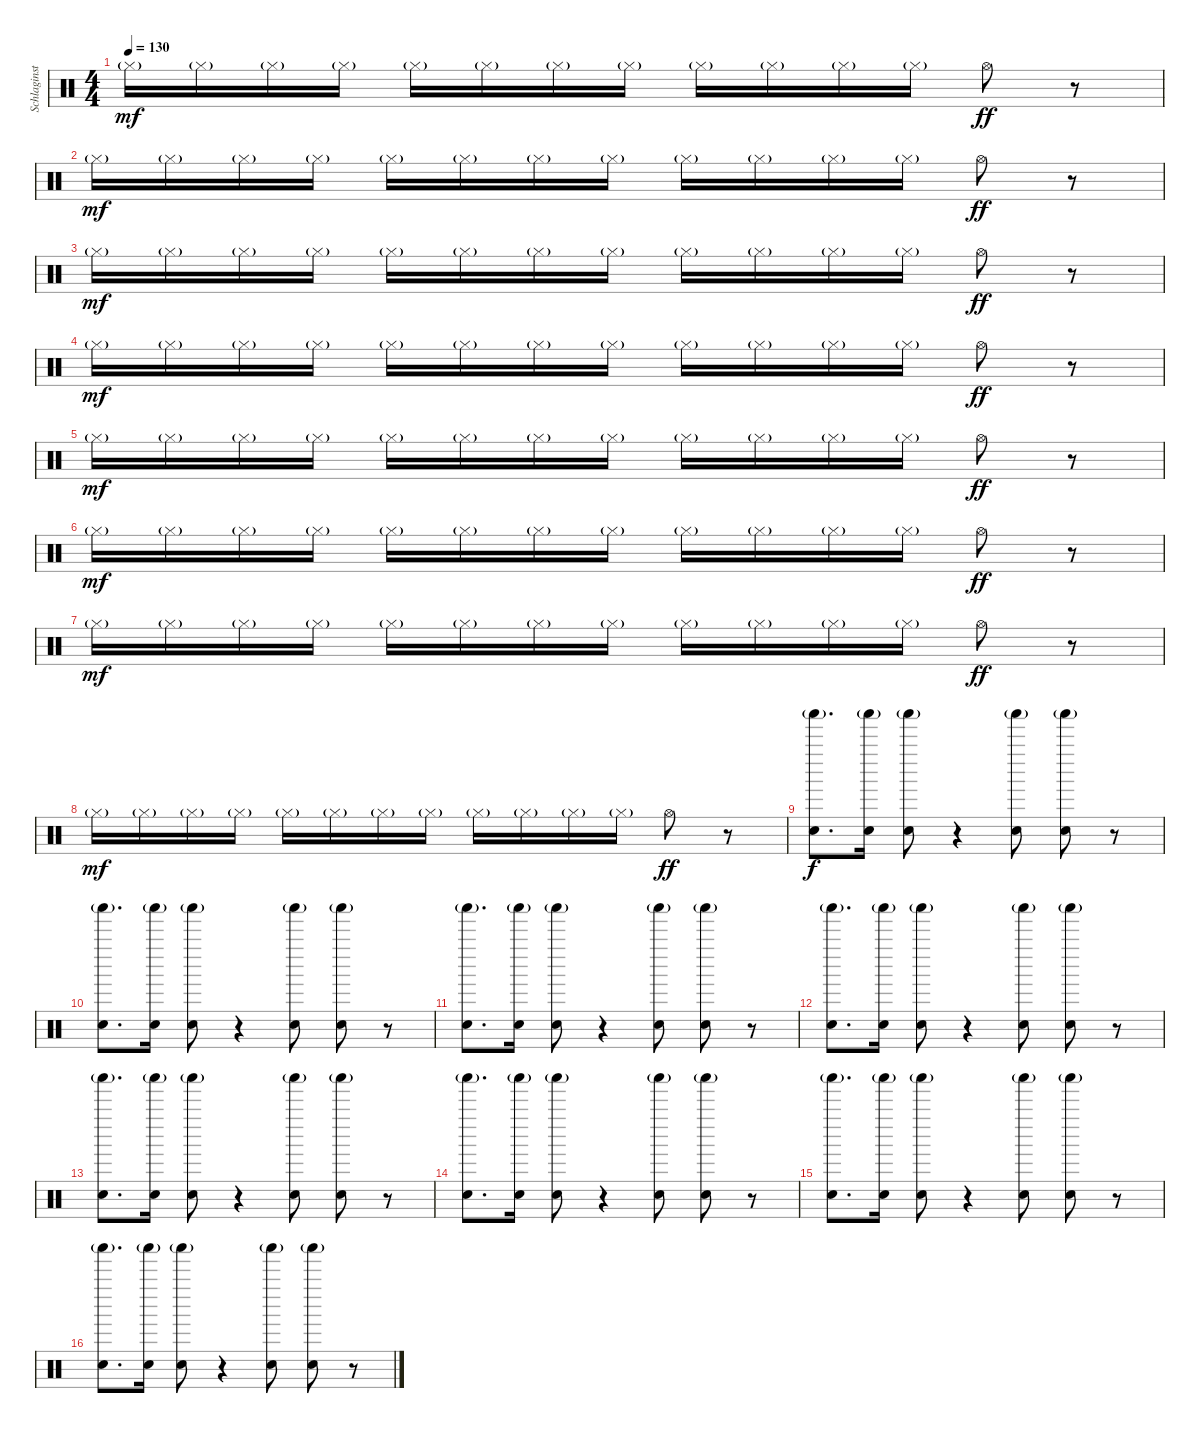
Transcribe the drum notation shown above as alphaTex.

\track ("Schlaginstrumente - Auswahl" "Schlaginst") {instrument percussion}
\staff {score}
\articulation defaults
\ts (4 4)
\tempo 130
\clef neutral
\ks c "Hi-Hat (closed)"{g}.16{dy mf} "Hi-Hat (closed)"{g}.16 "Hi-Hat (closed)"{g}.16 "Hi-Hat (closed)"{g}.16 "Hi-Hat (closed)"{g}.16 "Hi-Hat (closed)"{g}.16 "Hi-Hat (closed)"{g}.16 "Hi-Hat (closed)"{g}.16 "Hi-Hat (closed)"{g}.16 "Hi-Hat (closed)"{g}.16 "Hi-Hat (closed)"{g}.16 "Hi-Hat (closed)"{g}.16 "Hi-Hat (open)".8{dy ff}
r.8 |
"Hi-Hat (closed)"{g}.16{dy mf} "Hi-Hat (closed)"{g}.16 "Hi-Hat (closed)"{g}.16 "Hi-Hat (closed)"{g}.16 "Hi-Hat (closed)"{g}.16 "Hi-Hat (closed)"{g}.16 "Hi-Hat (closed)"{g}.16 "Hi-Hat (closed)"{g}.16 "Hi-Hat (closed)"{g}.16 "Hi-Hat (closed)"{g}.16 "Hi-Hat (closed)"{g}.16 "Hi-Hat (closed)"{g}.16 "Hi-Hat (open)".8{dy ff} r.8 |
"Hi-Hat (closed)"{g}.16{dy mf} "Hi-Hat (closed)"{g}.16 "Hi-Hat (closed)"{g}.16 "Hi-Hat (closed)"{g}.16 "Hi-Hat (closed)"{g}.16 "Hi-Hat (closed)"{g}.16 "Hi-Hat (closed)"{g}.16 "Hi-Hat (closed)"{g}.16 "Hi-Hat (closed)"{g}.16 "Hi-Hat (closed)"{g}.16 "Hi-Hat (closed)"{g}.16 "Hi-Hat (closed)"{g}.16 "Hi-Hat (open)".8{dy ff} r.8 |
"Hi-Hat (closed)"{g}.16{dy mf} "Hi-Hat (closed)"{g}.16 "Hi-Hat (closed)"{g}.16 "Hi-Hat (closed)"{g}.16 "Hi-Hat (closed)"{g}.16 "Hi-Hat (closed)"{g}.16 "Hi-Hat (closed)"{g}.16 "Hi-Hat (closed)"{g}.16 "Hi-Hat (closed)"{g}.16 "Hi-Hat (closed)"{g}.16 "Hi-Hat (closed)"{g}.16 "Hi-Hat (closed)"{g}.16 "Hi-Hat (open)".8{dy ff} r.8 |
"Hi-Hat (closed)"{g}.16{dy mf} "Hi-Hat (closed)"{g}.16 "Hi-Hat (closed)"{g}.16 "Hi-Hat (closed)"{g}.16 "Hi-Hat (closed)"{g}.16 "Hi-Hat (closed)"{g}.16 "Hi-Hat (closed)"{g}.16 "Hi-Hat (closed)"{g}.16 "Hi-Hat (closed)"{g}.16 "Hi-Hat (closed)"{g}.16 "Hi-Hat (closed)"{g}.16 "Hi-Hat (closed)"{g}.16 "Hi-Hat (open)".8{dy ff} r.8 |
"Hi-Hat (closed)"{g}.16{dy mf} "Hi-Hat (closed)"{g}.16 "Hi-Hat (closed)"{g}.16 "Hi-Hat (closed)"{g}.16 "Hi-Hat (closed)"{g}.16 "Hi-Hat (closed)"{g}.16 "Hi-Hat (closed)"{g}.16 "Hi-Hat (closed)"{g}.16 "Hi-Hat (closed)"{g}.16 "Hi-Hat (closed)"{g}.16 "Hi-Hat (closed)"{g}.16 "Hi-Hat (closed)"{g}.16 "Hi-Hat (open)".8{dy ff} r.8 |
"Hi-Hat (closed)"{g}.16{dy mf} "Hi-Hat (closed)"{g}.16 "Hi-Hat (closed)"{g}.16 "Hi-Hat (closed)"{g}.16 "Hi-Hat (closed)"{g}.16 "Hi-Hat (closed)"{g}.16 "Hi-Hat (closed)"{g}.16 "Hi-Hat (closed)"{g}.16 "Hi-Hat (closed)"{g}.16 "Hi-Hat (closed)"{g}.16 "Hi-Hat (closed)"{g}.16 "Hi-Hat (closed)"{g}.16 "Hi-Hat (open)".8{dy ff} r.8 |
"Hi-Hat (closed)"{g}.16{dy mf} "Hi-Hat (closed)"{g}.16 "Hi-Hat (closed)"{g}.16 "Hi-Hat (closed)"{g}.16 "Hi-Hat (closed)"{g}.16 "Hi-Hat (closed)"{g}.16 "Hi-Hat (closed)"{g}.16 "Hi-Hat (closed)"{g}.16 "Hi-Hat (closed)"{g}.16 "Hi-Hat (closed)"{g}.16 "Hi-Hat (closed)"{g}.16 "Hi-Hat (closed)"{g}.16 "Hi-Hat (open)".8{dy ff} r.8 |
("Shaker (hit)"{g} "Hand Clap (hit)").8{d dy f} ("Shaker (hit)"{g} "Hand Clap (hit)").16 ("Shaker (hit)"{g} "Hand Clap (hit)").8 r.4 ("Shaker (hit)"{g} "Hand Clap (hit)").8 ("Shaker (hit)"{g} "Hand Clap (hit)").8 r.8 |
("Shaker (hit)"{g} "Hand Clap (hit)").8{d} ("Shaker (hit)"{g} "Hand Clap (hit)").16 ("Shaker (hit)"{g} "Hand Clap (hit)").8 r.4 ("Shaker (hit)"{g} "Hand Clap (hit)").8 ("Shaker (hit)"{g} "Hand Clap (hit)").8 r.8 |
("Shaker (hit)"{g} "Hand Clap (hit)").8{d} ("Shaker (hit)"{g} "Hand Clap (hit)").16 ("Shaker (hit)"{g} "Hand Clap (hit)").8 r.4 ("Shaker (hit)"{g} "Hand Clap (hit)").8 ("Shaker (hit)"{g} "Hand Clap (hit)").8 r.8 |
("Shaker (hit)"{g} "Hand Clap (hit)").8{d} ("Shaker (hit)"{g} "Hand Clap (hit)").16 ("Shaker (hit)"{g} "Hand Clap (hit)").8 r.4 ("Shaker (hit)"{g} "Hand Clap (hit)").8 ("Shaker (hit)"{g} "Hand Clap (hit)").8 r.8 |
("Shaker (hit)"{g} "Hand Clap (hit)").8{d} ("Shaker (hit)"{g} "Hand Clap (hit)").16 ("Shaker (hit)"{g} "Hand Clap (hit)").8 r.4 ("Shaker (hit)"{g} "Hand Clap (hit)").8 ("Shaker (hit)"{g} "Hand Clap (hit)").8 r.8 |
("Shaker (hit)"{g} "Hand Clap (hit)").8{d} ("Shaker (hit)"{g} "Hand Clap (hit)").16 ("Shaker (hit)"{g} "Hand Clap (hit)").8 r.4 ("Shaker (hit)"{g} "Hand Clap (hit)").8 ("Shaker (hit)"{g} "Hand Clap (hit)").8 r.8 |
("Shaker (hit)"{g} "Hand Clap (hit)").8{d} ("Shaker (hit)"{g} "Hand Clap (hit)").16 ("Shaker (hit)"{g} "Hand Clap (hit)").8 r.4 ("Shaker (hit)"{g} "Hand Clap (hit)").8 ("Shaker (hit)"{g} "Hand Clap (hit)").8 r.8 |
("Shaker (hit)"{g} "Hand Clap (hit)").8{d} ("Shaker (hit)"{g} "Hand Clap (hit)").16 ("Shaker (hit)"{g} "Hand Clap (hit)").8 r.4 ("Shaker (hit)"{g} "Hand Clap (hit)").8 ("Shaker (hit)"{g} "Hand Clap (hit)").8 r.8
